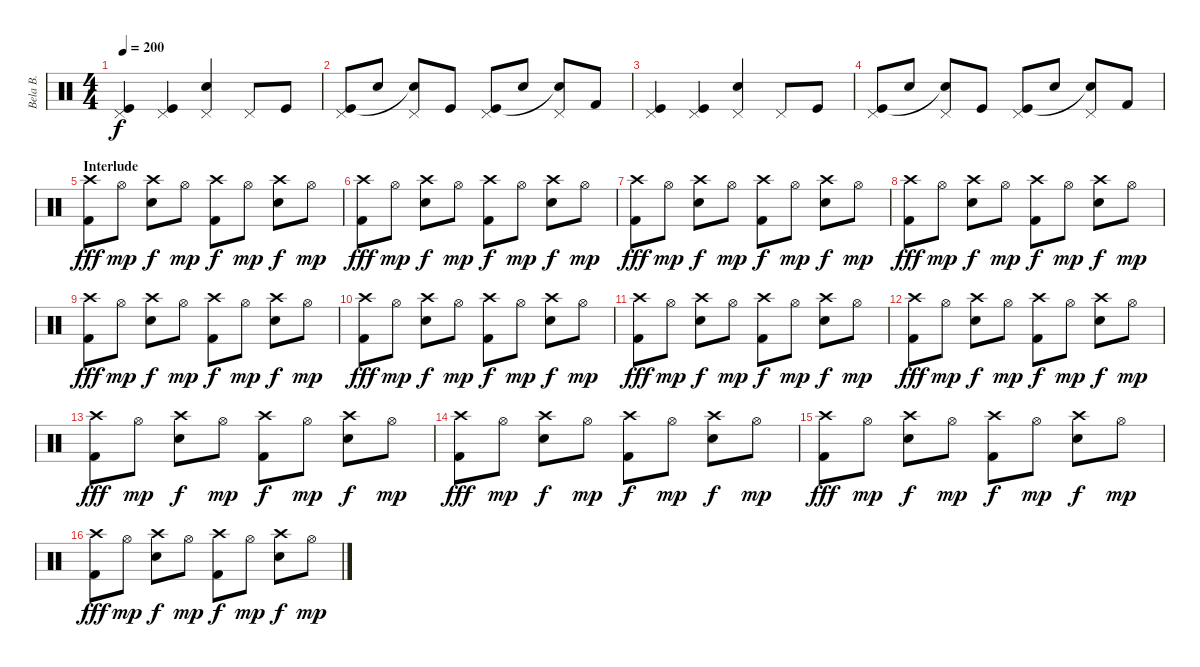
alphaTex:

\track ("Bela B. " "Bela B. ") {instrument percussion}
\staff {score}
\articulation defaults
\ts (4 4)
\tempo 200
\clef neutral
\ks c
("Pedal Hi-Hat (hit)" "Kick (hit)").4{dy f} ("Pedal Hi-Hat (hit)" "Kick (hit)").4 ("Pedal Hi-Hat (hit)" "Snare (hit) 2").4 "Pedal Hi-Hat (hit)".8 "Kick (hit)".8 |
("Pedal Hi-Hat (hit)" "Kick (hit)").8 "Snare (hit) 2".8 ("Pedal Hi-Hat (hit)" "Electric Snare (hit)"{t}).8 "Kick (hit)".8 ("Pedal Hi-Hat (hit)" "Kick (hit)").8 "Snare (hit) 2".8 ("Pedal Hi-Hat (hit)" "Electric Snare (hit)"{t}).8 "Kick (hit) 2".8 |
("Pedal Hi-Hat (hit)" "Kick (hit)").4 ("Pedal Hi-Hat (hit)" "Kick (hit)").4 ("Pedal Hi-Hat (hit)" "Snare (hit) 2").4 "Pedal Hi-Hat (hit)".8 "Kick (hit)".8 |
("Pedal Hi-Hat (hit)" "Kick (hit)").8 "Snare (hit) 2".8 ("Pedal Hi-Hat (hit)" "Electric Snare (hit)"{t}).8 "Kick (hit)".8 ("Pedal Hi-Hat (hit)" "Kick (hit)").8 "Snare (hit) 2".8 ("Pedal Hi-Hat (hit)" "Electric Snare (hit)"{t}).8 "Kick (hit) 2".8 |
\section ("" "Interlude")
("Crash high (hit)" "Kick (hit) 2").8{dy fff} "Hi-Hat (open)".8{dy mp} ("Crash high (hit)" "Snare (hit) 2").8{dy f} "Hi-Hat (open)".8{dy mp} ("Crash high (hit)" "Kick (hit) 2").8{dy f} "Hi-Hat (open)".8{dy mp} ("Crash high (hit)" "Snare (hit) 2").8{dy f} "Hi-Hat (open)".8{dy mp} |
("Crash high (hit)" "Kick (hit) 2").8{dy fff} "Hi-Hat (open)".8{dy mp} ("Crash high (hit)" "Snare (hit) 2").8{dy f} "Hi-Hat (open)".8{dy mp} ("Crash high (hit)" "Kick (hit) 2").8{dy f} "Hi-Hat (open)".8{dy mp} ("Crash high (hit)" "Snare (hit) 2").8{dy f} "Hi-Hat (open)".8{dy mp} |
("Crash high (hit)" "Kick (hit) 2").8{dy fff} "Hi-Hat (open)".8{dy mp} ("Crash high (hit)" "Snare (hit) 2").8{dy f} "Hi-Hat (open)".8{dy mp} ("Crash high (hit)" "Kick (hit) 2").8{dy f} "Hi-Hat (open)".8{dy mp} ("Crash high (hit)" "Snare (hit) 2").8{dy f} "Hi-Hat (open)".8{dy mp} |
("Crash high (hit)" "Kick (hit) 2").8{dy fff} "Hi-Hat (open)".8{dy mp} ("Crash high (hit)" "Snare (hit) 2").8{dy f} "Hi-Hat (open)".8{dy mp} ("Crash high (hit)" "Kick (hit) 2").8{dy f} "Hi-Hat (open)".8{dy mp} ("Crash high (hit)" "Snare (hit) 2").8{dy f} "Hi-Hat (open)".8{dy mp} |
("Crash high (hit)" "Kick (hit) 2").8{dy fff} "Hi-Hat (open)".8{dy mp} ("Crash high (hit)" "Snare (hit) 2").8{dy f} "Hi-Hat (open)".8{dy mp} ("Crash high (hit)" "Kick (hit) 2").8{dy f} "Hi-Hat (open)".8{dy mp} ("Crash high (hit)" "Snare (hit) 2").8{dy f} "Hi-Hat (open)".8{dy mp} |
("Crash high (hit)" "Kick (hit) 2").8{dy fff} "Hi-Hat (open)".8{dy mp} ("Crash high (hit)" "Snare (hit) 2").8{dy f} "Hi-Hat (open)".8{dy mp} ("Crash high (hit)" "Kick (hit) 2").8{dy f} "Hi-Hat (open)".8{dy mp} ("Crash high (hit)" "Snare (hit) 2").8{dy f} "Hi-Hat (open)".8{dy mp} |
("Crash high (hit)" "Kick (hit) 2").8{dy fff} "Hi-Hat (open)".8{dy mp} ("Crash high (hit)" "Snare (hit) 2").8{dy f} "Hi-Hat (open)".8{dy mp} ("Crash high (hit)" "Kick (hit) 2").8{dy f} "Hi-Hat (open)".8{dy mp} ("Crash high (hit)" "Snare (hit) 2").8{dy f} "Hi-Hat (open)".8{dy mp} |
("Crash high (hit)" "Kick (hit) 2").8{dy fff} "Hi-Hat (open)".8{dy mp} ("Crash high (hit)" "Snare (hit) 2").8{dy f} "Hi-Hat (open)".8{dy mp} ("Crash high (hit)" "Kick (hit) 2").8{dy f} "Hi-Hat (open)".8{dy mp} ("Crash high (hit)" "Snare (hit) 2").8{dy f} "Hi-Hat (open)".8{dy mp} |
("Crash high (hit)" "Kick (hit) 2").8{dy fff} "Hi-Hat (open)".8{dy mp} ("Crash high (hit)" "Snare (hit) 2").8{dy f} "Hi-Hat (open)".8{dy mp} ("Crash high (hit)" "Kick (hit) 2").8{dy f} "Hi-Hat (open)".8{dy mp} ("Crash high (hit)" "Snare (hit) 2").8{dy f} "Hi-Hat (open)".8{dy mp} |
("Crash high (hit)" "Kick (hit) 2").8{dy fff} "Hi-Hat (open)".8{dy mp} ("Crash high (hit)" "Snare (hit) 2").8{dy f} "Hi-Hat (open)".8{dy mp} ("Crash high (hit)" "Kick (hit) 2").8{dy f} "Hi-Hat (open)".8{dy mp} ("Crash high (hit)" "Snare (hit) 2").8{dy f} "Hi-Hat (open)".8{dy mp} |
("Crash high (hit)" "Kick (hit) 2").8{dy fff} "Hi-Hat (open)".8{dy mp} ("Crash high (hit)" "Snare (hit) 2").8{dy f} "Hi-Hat (open)".8{dy mp} ("Crash high (hit)" "Kick (hit) 2").8{dy f} "Hi-Hat (open)".8{dy mp} ("Crash high (hit)" "Snare (hit) 2").8{dy f} "Hi-Hat (open)".8{dy mp} |
("Crash high (hit)" "Kick (hit) 2").8{dy fff} "Hi-Hat (open)".8{dy mp} ("Crash high (hit)" "Snare (hit) 2").8{dy f} "Hi-Hat (open)".8{dy mp} ("Crash high (hit)" "Kick (hit) 2").8{dy f} "Hi-Hat (open)".8{dy mp} ("Crash high (hit)" "Snare (hit) 2").8{dy f} "Hi-Hat (open)".8{dy mp}
